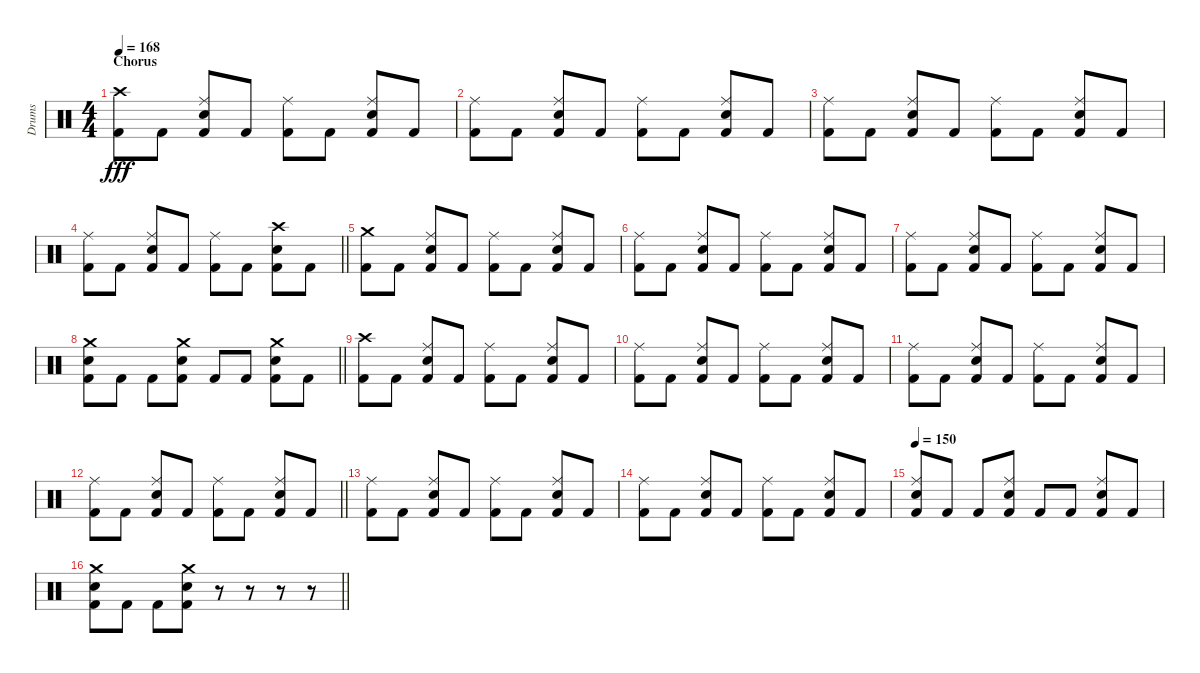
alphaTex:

\track ("Drums" "Drums") {instrument percussion}
\staff {score}
\articulation defaults
\ts (4 4)
\section ("" "Chorus")
\tempo 168
\clef neutral
\ks c
("Crash high (hit)" "Kick (hit) 2").8{dy fff} "Kick (hit) 2".8 ("Ride (middle)" "Snare (hit) 2" "Kick (hit) 2").8 "Kick (hit) 2".8 ("Ride (middle)" "Kick (hit) 2").8 "Kick (hit) 2".8 ("Ride (middle)" "Snare (hit) 2" "Kick (hit) 2").8 "Kick (hit) 2".8 |
("Ride (middle)" "Kick (hit) 2").8 "Kick (hit) 2".8 ("Ride (middle)" "Snare (hit) 2" "Kick (hit) 2").8 "Kick (hit) 2".8 ("Ride (middle)" "Kick (hit) 2").8 "Kick (hit) 2".8 ("Ride (middle)" "Snare (hit) 2" "Kick (hit) 2").8 "Kick (hit) 2".8 |
("Ride (middle)" "Kick (hit) 2").8 "Kick (hit) 2".8 ("Ride (middle)" "Snare (hit) 2" "Kick (hit) 2").8 "Kick (hit) 2".8 ("Ride (middle)" "Kick (hit) 2").8 "Kick (hit) 2".8 ("Ride (middle)" "Snare (hit) 2" "Kick (hit) 2").8 "Kick (hit) 2".8 |
\barLineRight lightlight
("Ride (middle)" "Kick (hit) 2").8 "Kick (hit) 2".8 ("Ride (middle)" "Snare (hit) 2" "Kick (hit) 2").8 "Kick (hit) 2".8 ("Ride (middle)" "Kick (hit) 2").8 "Kick (hit) 2".8 ("Crash high (hit)" "Snare (hit) 2" "Kick (hit) 2").8 "Kick (hit) 2".8 |
("Crash medium (hit)" "Kick (hit) 2").8 "Kick (hit) 2".8 ("Ride (middle)" "Snare (hit) 2" "Kick (hit) 2").8 "Kick (hit) 2".8 ("Ride (middle)" "Kick (hit) 2").8 "Kick (hit) 2".8 ("Ride (middle)" "Snare (hit) 2" "Kick (hit) 2").8 "Kick (hit) 2".8 |
("Ride (middle)" "Kick (hit) 2").8 "Kick (hit) 2".8 ("Ride (middle)" "Snare (hit) 2" "Kick (hit) 2").8 "Kick (hit) 2".8 ("Ride (middle)" "Kick (hit) 2").8 "Kick (hit) 2".8 ("Ride (middle)" "Snare (hit) 2" "Kick (hit) 2").8 "Kick (hit) 2".8 |
("Ride (middle)" "Kick (hit) 2").8 "Kick (hit) 2".8 ("Ride (middle)" "Snare (hit) 2" "Kick (hit) 2").8 "Kick (hit) 2".8 ("Ride (middle)" "Kick (hit) 2").8 "Kick (hit) 2".8 ("Ride (middle)" "Snare (hit) 2" "Kick (hit) 2").8 "Kick (hit) 2".8 |
\barLineRight lightlight
("Crash medium (hit)" "Snare (hit) 2" "Kick (hit) 2").8 "Kick (hit) 2".8 "Kick (hit) 2".8 ("Crash medium (hit)" "Snare (hit) 2" "Kick (hit) 2").8 "Kick (hit) 2".8 "Kick (hit) 2".8 ("Crash medium (hit)" "Snare (hit) 2" "Kick (hit) 2").8 "Kick (hit) 2".8 |
("Crash high (hit)" "Kick (hit) 2").8 "Kick (hit) 2".8 ("Ride (middle)" "Snare (hit) 2" "Kick (hit) 2").8 "Kick (hit) 2".8 ("Ride (middle)" "Kick (hit) 2").8 "Kick (hit) 2".8 ("Ride (middle)" "Snare (hit) 2" "Kick (hit) 2").8 "Kick (hit) 2".8 |
("Ride (middle)" "Kick (hit) 2").8 "Kick (hit) 2".8 ("Ride (middle)" "Snare (hit) 2" "Kick (hit) 2").8 "Kick (hit) 2".8 ("Ride (middle)" "Kick (hit) 2").8 "Kick (hit) 2".8 ("Ride (middle)" "Snare (hit) 2" "Kick (hit) 2").8 "Kick (hit) 2".8 |
("Ride (middle)" "Kick (hit) 2").8 "Kick (hit) 2".8 ("Ride (middle)" "Snare (hit) 2" "Kick (hit) 2").8 "Kick (hit) 2".8 ("Ride (middle)" "Kick (hit) 2").8 "Kick (hit) 2".8 ("Ride (middle)" "Snare (hit) 2" "Kick (hit) 2").8 "Kick (hit) 2".8 |
\barLineRight lightlight
("Ride (middle)" "Kick (hit) 2").8 "Kick (hit) 2".8 ("Ride (middle)" "Snare (hit) 2" "Kick (hit) 2").8 "Kick (hit) 2".8 ("Ride (middle)" "Kick (hit) 2").8 "Kick (hit) 2".8 ("Ride (middle)" "Snare (hit) 2" "Kick (hit) 2").8 "Kick (hit) 2".8 |
("Ride (middle)" "Kick (hit) 2").8 "Kick (hit) 2".8 ("Ride (middle)" "Snare (hit) 2" "Kick (hit) 2").8 "Kick (hit) 2".8 ("Ride (middle)" "Kick (hit) 2").8 "Kick (hit) 2".8 ("Ride (middle)" "Snare (hit) 2" "Kick (hit) 2").8 "Kick (hit) 2".8 |
("Ride (middle)" "Kick (hit) 2").8 "Kick (hit) 2".8 ("Ride (middle)" "Snare (hit) 2" "Kick (hit) 2").8 "Kick (hit) 2".8 ("Ride (middle)" "Kick (hit) 2").8 "Kick (hit) 2".8 ("Ride (middle)" "Snare (hit) 2" "Kick (hit) 2").8 "Kick (hit) 2".8 |
\tempo 150
("Ride (middle)" "Snare (hit) 2" "Kick (hit) 2").8 "Kick (hit) 2".8 "Kick (hit) 2".8 ("Ride (middle)" "Snare (hit) 2" "Kick (hit) 2").8 "Kick (hit) 2".8 "Kick (hit) 2".8 ("Ride (middle)" "Snare (hit) 2" "Kick (hit) 2").8 "Kick (hit) 2".8 |
\barLineRight lightlight
("Crash medium (hit)" "Snare (hit) 2" "Kick (hit) 2").8 "Kick (hit) 2".8 "Kick (hit) 2".8 ("Crash medium (hit)" "Snare (hit) 2" "Kick (hit) 2").8 r.8 r.8 r.8 r.8
